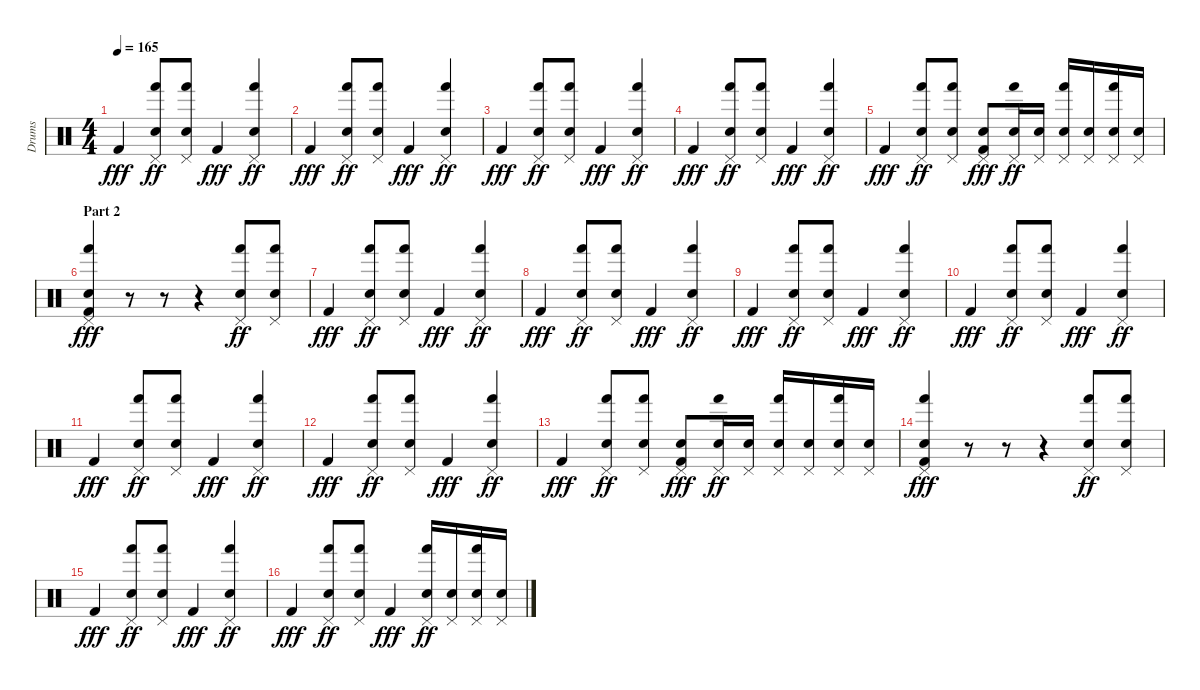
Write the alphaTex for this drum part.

\track ("Drums" "Drums") {instrument percussion}
\staff {score}
\articulation defaults
\ts (4 4)
\tempo 165
\clef neutral
\ks c "Kick (hit) 2".4{dy fff}
("Pedal Hi-Hat (hit)" "Hand (hit)" "Electric Snare (hit)").8{dy ff} ("Pedal Hi-Hat (hit)" "Hand (hit)" "Electric Snare (hit)").8 "Kick (hit) 2".4{dy fff} ("Pedal Hi-Hat (hit)" "Hand (hit)" "Electric Snare (hit)").4{dy ff} |
"Kick (hit) 2".4{dy fff} ("Pedal Hi-Hat (hit)" "Hand (hit)" "Electric Snare (hit)").8{dy ff} ("Pedal Hi-Hat (hit)" "Hand (hit)" "Electric Snare (hit)").8 "Kick (hit) 2".4{dy fff} ("Pedal Hi-Hat (hit)" "Hand (hit)" "Electric Snare (hit)").4{dy ff} |
"Kick (hit) 2".4{dy fff} ("Pedal Hi-Hat (hit)" "Hand (hit)" "Electric Snare (hit)").8{dy ff} ("Pedal Hi-Hat (hit)" "Hand (hit)" "Electric Snare (hit)").8 "Kick (hit) 2".4{dy fff} ("Pedal Hi-Hat (hit)" "Hand (hit)" "Electric Snare (hit)").4{dy ff} |
"Kick (hit) 2".4{dy fff} ("Pedal Hi-Hat (hit)" "Hand (hit)" "Electric Snare (hit)").8{dy ff} ("Pedal Hi-Hat (hit)" "Hand (hit)" "Electric Snare (hit)").8 "Kick (hit) 2".4{dy fff} ("Pedal Hi-Hat (hit)" "Hand (hit)" "Electric Snare (hit)").4{dy ff} |
"Kick (hit) 2".4{dy fff} ("Pedal Hi-Hat (hit)" "Hand (hit)" "Electric Snare (hit)").8{dy ff} ("Pedal Hi-Hat (hit)" "Hand (hit)" "Electric Snare (hit)").8 ("Pedal Hi-Hat (hit)" "Electric Snare (hit)" "Kick (hit) 2").8{dy fff} ("Pedal Hi-Hat (hit)" "Hand (hit)" "Electric Snare (hit)").16{dy ff} ("Pedal Hi-Hat (hit)" "Electric Snare (hit)").16 ("Pedal Hi-Hat (hit)" "Hand (hit)" "Electric Snare (hit)").16 ("Pedal Hi-Hat (hit)" "Electric Snare (hit)").16 ("Pedal Hi-Hat (hit)" "Hand (hit)" "Electric Snare (hit)").16 ("Pedal Hi-Hat (hit)" "Electric Snare (hit)").16 |
\section ("" "Part 2")
("Pedal Hi-Hat (hit)" "Hand (hit)" "Electric Snare (hit)" "Kick (hit) 2").4{dy fff} r.8 r.8 r.4 ("Pedal Hi-Hat (hit)" "Hand (hit)" "Electric Snare (hit)").8{dy ff} ("Pedal Hi-Hat (hit)" "Hand (hit)" "Electric Snare (hit)").8 |
"Kick (hit) 2".4{dy fff} ("Pedal Hi-Hat (hit)" "Hand (hit)" "Electric Snare (hit)").8{dy ff} ("Pedal Hi-Hat (hit)" "Hand (hit)" "Electric Snare (hit)").8 "Kick (hit) 2".4{dy fff} ("Pedal Hi-Hat (hit)" "Hand (hit)" "Electric Snare (hit)").4{dy ff} |
"Kick (hit) 2".4{dy fff} ("Pedal Hi-Hat (hit)" "Hand (hit)" "Electric Snare (hit)").8{dy ff} ("Pedal Hi-Hat (hit)" "Hand (hit)" "Electric Snare (hit)").8 "Kick (hit) 2".4{dy fff} ("Pedal Hi-Hat (hit)" "Hand (hit)" "Electric Snare (hit)").4{dy ff} |
"Kick (hit) 2".4{dy fff} ("Pedal Hi-Hat (hit)" "Hand (hit)" "Electric Snare (hit)").8{dy ff} ("Pedal Hi-Hat (hit)" "Hand (hit)" "Electric Snare (hit)").8 "Kick (hit) 2".4{dy fff} ("Pedal Hi-Hat (hit)" "Hand (hit)" "Electric Snare (hit)").4{dy ff} |
"Kick (hit) 2".4{dy fff} ("Pedal Hi-Hat (hit)" "Hand (hit)" "Electric Snare (hit)").8{dy ff} ("Pedal Hi-Hat (hit)" "Hand (hit)" "Electric Snare (hit)").8 "Kick (hit) 2".4{dy fff} ("Pedal Hi-Hat (hit)" "Hand (hit)" "Electric Snare (hit)").4{dy ff} |
"Kick (hit) 2".4{dy fff} ("Pedal Hi-Hat (hit)" "Hand (hit)" "Electric Snare (hit)").8{dy ff} ("Pedal Hi-Hat (hit)" "Hand (hit)" "Electric Snare (hit)").8 "Kick (hit) 2".4{dy fff} ("Pedal Hi-Hat (hit)" "Hand (hit)" "Electric Snare (hit)").4{dy ff} |
"Kick (hit) 2".4{dy fff} ("Pedal Hi-Hat (hit)" "Hand (hit)" "Electric Snare (hit)").8{dy ff} ("Pedal Hi-Hat (hit)" "Hand (hit)" "Electric Snare (hit)").8 "Kick (hit) 2".4{dy fff} ("Pedal Hi-Hat (hit)" "Hand (hit)" "Electric Snare (hit)").4{dy ff} |
"Kick (hit) 2".4{dy fff} ("Pedal Hi-Hat (hit)" "Hand (hit)" "Electric Snare (hit)").8{dy ff} ("Pedal Hi-Hat (hit)" "Hand (hit)" "Electric Snare (hit)").8 ("Pedal Hi-Hat (hit)" "Electric Snare (hit)" "Kick (hit) 2").8{dy fff} ("Pedal Hi-Hat (hit)" "Hand (hit)" "Electric Snare (hit)").16{dy ff} ("Pedal Hi-Hat (hit)" "Electric Snare (hit)").16 ("Pedal Hi-Hat (hit)" "Hand (hit)" "Electric Snare (hit)").16 ("Pedal Hi-Hat (hit)" "Electric Snare (hit)").16 ("Pedal Hi-Hat (hit)" "Hand (hit)" "Electric Snare (hit)").16 ("Pedal Hi-Hat (hit)" "Electric Snare (hit)").16 |
("Pedal Hi-Hat (hit)" "Hand (hit)" "Electric Snare (hit)" "Kick (hit) 2").4{dy fff} r.8 r.8 r.4 ("Pedal Hi-Hat (hit)" "Hand (hit)" "Electric Snare (hit)").8{dy ff} ("Pedal Hi-Hat (hit)" "Hand (hit)" "Electric Snare (hit)").8 |
"Kick (hit) 2".4{dy fff} ("Pedal Hi-Hat (hit)" "Hand (hit)" "Electric Snare (hit)").8{dy ff} ("Pedal Hi-Hat (hit)" "Hand (hit)" "Electric Snare (hit)").8 "Kick (hit) 2".4{dy fff} ("Pedal Hi-Hat (hit)" "Hand (hit)" "Electric Snare (hit)").4{dy ff} |
"Kick (hit) 2".4{dy fff} ("Pedal Hi-Hat (hit)" "Hand (hit)" "Electric Snare (hit)").8{dy ff} ("Pedal Hi-Hat (hit)" "Hand (hit)" "Electric Snare (hit)").8 "Kick (hit) 2".4{dy fff} ("Pedal Hi-Hat (hit)" "Hand (hit)" "Electric Snare (hit)").16{dy ff} ("Pedal Hi-Hat (hit)" "Electric Snare (hit)").16 ("Pedal Hi-Hat (hit)" "Hand (hit)" "Electric Snare (hit)").16 ("Pedal Hi-Hat (hit)" "Electric Snare (hit)").16
